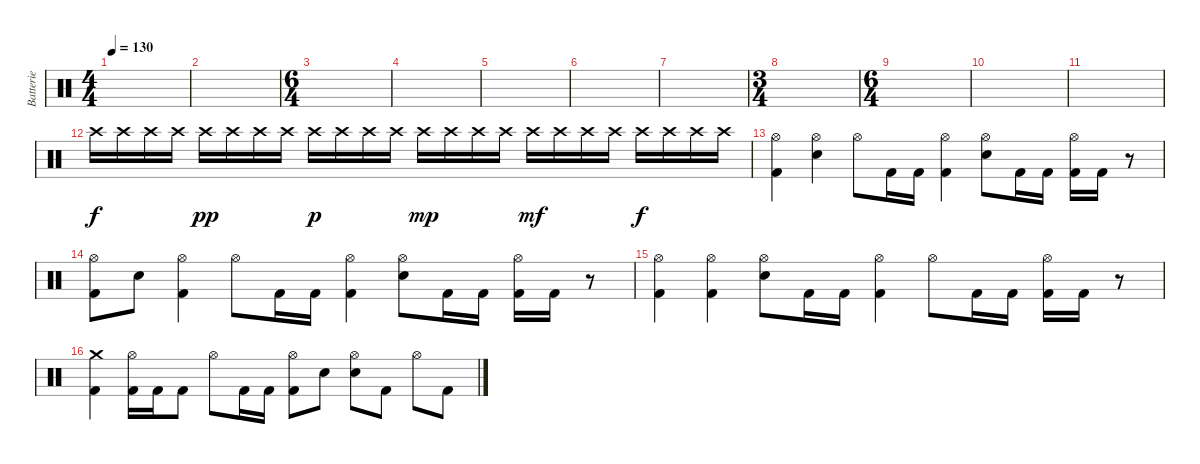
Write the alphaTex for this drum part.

\track ("Batterie" "Batterie") {instrument percussion}
\staff {score}
\articulation defaults
\ts (4 4)
\tempo 130
\clef neutral
\ks c
|
|
\ts (6 4)
|
|
|
|
|
\ts (3 4)
|
\ts (6 4)
|
|
|
"Crash high (hit)".16 "Crash high (hit)".16 "Crash high (hit)".16 "Crash high (hit)".16 "Crash high (hit)".16{dy pp} "Crash high (hit)".16 "Crash high (hit)".16 "Crash high (hit)".16 "Crash high (hit)".16{dy p} "Crash high (hit)".16 "Crash high (hit)".16 "Crash high (hit)".16 "Crash high (hit)".16{dy mp} "Crash high (hit)".16 "Crash high (hit)".16 "Crash high (hit)".16 "Crash high (hit)".16{dy mf} "Crash high (hit)".16 "Crash high (hit)".16 "Crash high (hit)".16 "Crash high (hit)".16{dy f} "Crash high (hit)".16 "Crash high (hit)".16 "Crash high (hit)".16 |
("Hi-Hat (open)" "Kick (hit) 2").4 ("Hi-Hat (open)" "Snare (hit) 2").4 "Hi-Hat (open)".8 "Kick (hit) 2".16 "Kick (hit) 2".16 ("Hi-Hat (open)" "Kick (hit) 2").4 ("Hi-Hat (open)" "Snare (hit) 2").8 "Kick (hit) 2".16 "Kick (hit) 2".16 ("Hi-Hat (open)" "Kick (hit) 2").16 "Kick (hit) 2".16 r.8 |
("Hi-Hat (open)" "Kick (hit) 2").8 "Snare (hit) 2".8 ("Hi-Hat (open)" "Kick (hit) 2").4 "Hi-Hat (open)".8 "Kick (hit) 2".16 "Kick (hit) 2".16 ("Hi-Hat (open)" "Kick (hit) 2").4 ("Hi-Hat (open)" "Snare (hit) 2").8 "Kick (hit) 2".16 "Kick (hit) 2".16 ("Hi-Hat (open)" "Kick (hit) 2").16 "Kick (hit) 2".16 r.8 |
("Hi-Hat (open)" "Kick (hit) 2").4 ("Hi-Hat (open)" "Kick (hit) 2").4 ("Hi-Hat (open)" "Snare (hit) 2").8 "Kick (hit) 2".16 "Kick (hit) 2".16 ("Hi-Hat (open)" "Kick (hit) 2").4 "Hi-Hat (open)".8 "Kick (hit) 2".16 "Kick (hit) 2".16 ("Hi-Hat (open)" "Kick (hit) 2").16 "Kick (hit) 2".16 r.8 |
("Crash medium (hit)" "Kick (hit) 2").4 ("Hi-Hat (open)" "Kick (hit) 2").16 "Kick (hit) 2".16 "Kick (hit) 2".8 "Hi-Hat (open)".8 "Kick (hit) 2".16 "Kick (hit) 2".16 ("Hi-Hat (open)" "Kick (hit) 2").8 "Snare (hit) 2".8 ("Hi-Hat (open)" "Snare (hit) 2").8 "Kick (hit) 2".8 "Hi-Hat (open)".8 "Kick (hit) 2".8
